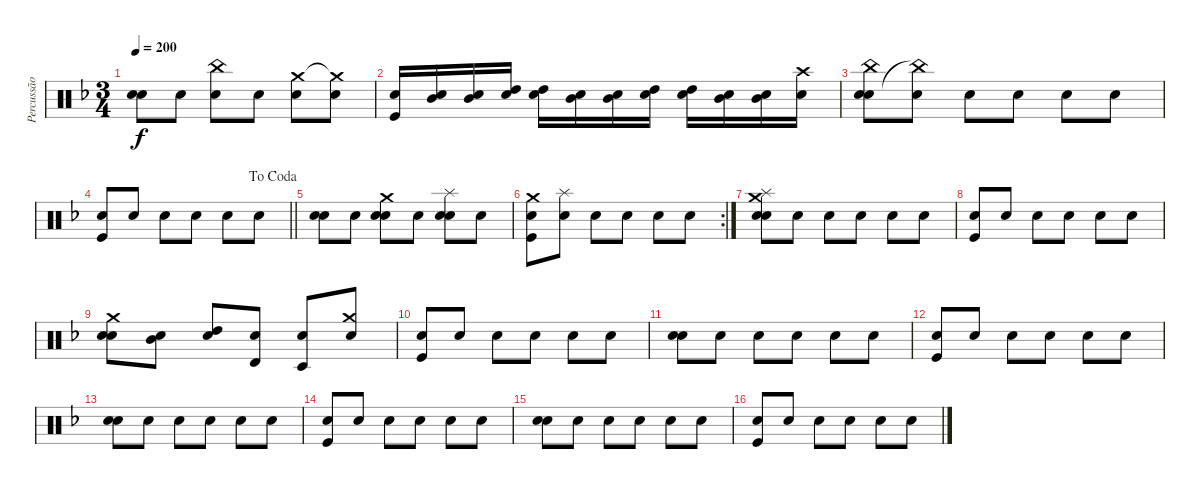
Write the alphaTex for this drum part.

\track ("Percussão" "Percussão") {instrument percussion}
\staff {score}
\articulation defaults
\ts (3 4)
\tempo 200
\clef neutral
\ks dminor
("Hand Clap (hit)" "Snare (hit) 2").8{dy f} "Hand Clap (hit)".8 ("Hand Clap (hit)" "China (hit)").8 "Hand Clap (hit)".8 ("Hand Clap (hit)" "Crash medium (hit)").8 ("Hand Clap (hit)" "Crash medium (hit)"{t}).8 |
("Hand Clap (hit)" "Kick (hit)").16 ("Hand Clap (hit)" "Mid Tom (hit)").16 ("Hand Clap (hit)" "Mid Tom (hit)").16 ("Hand Clap (hit)" "High Tom (hit)").16 ("Hand Clap (hit)" "High Tom (hit)").16 ("Hand Clap (hit)" "Mid Tom (hit)").16 ("Hand Clap (hit)" "Mid Tom (hit)").16 ("Hand Clap (hit)" "High Tom (hit)").16 ("Hand Clap (hit)" "High Tom (hit)").16 ("Hand Clap (hit)" "Mid Tom (hit)").16 ("Hand Clap (hit)" "Mid Tom (hit)").16 ("Hand Clap (hit)" "Crash high (hit)").16 |
("Hand Clap (hit)" "Snare (hit) 2" "China (hit)").8 ("Hand Clap (hit)" "China (hit)"{t}).8 "Hand Clap (hit)".8 "Hand Clap (hit)".8 "Hand Clap (hit)".8 "Hand Clap (hit)".8 |
\jump dacoda
\barLineRight lightlight
("Hand Clap (hit)" "Kick (hit)").8 "Hand Clap (hit)".8 "Hand Clap (hit)".8 "Hand Clap (hit)".8 "Hand Clap (hit)".8 "Hand Clap (hit)".8 |
("Hand Clap (hit)" "Snare (hit) 2").8 "Hand Clap (hit)".8 ("Hand Clap (hit)" "Crash medium (hit)" "Snare (hit) 2").8 "Hand Clap (hit)".8 ("Hand Clap (hit)" "Splash (hit)" "Snare (hit) 2").8 "Hand Clap (hit)".8 |
\rc 2
("Hand Clap (hit)" "Kick (hit)" "Crash medium (hit)").8 ("Hand Clap (hit)" "Splash (hit)").8 "Hand Clap (hit)".8 "Hand Clap (hit)".8 "Hand Clap (hit)".8 "Hand Clap (hit)".8 |
("Hand Clap (hit)" "Snare (hit) 2" "Splash (hit)" "Crash medium (hit)").8 "Hand Clap (hit)".8 "Hand Clap (hit)".8 "Hand Clap (hit)".8 "Hand Clap (hit)".8 "Hand Clap (hit)".8 |
("Hand Clap (hit)" "Kick (hit)").8 "Hand Clap (hit)".8 "Hand Clap (hit)".8 "Hand Clap (hit)".8 "Hand Clap (hit)".8 "Hand Clap (hit)".8 |
("Hand Clap (hit)" "Snare (hit) 2" "Crash medium (hit)").8 ("Hand Clap (hit)" "Mid Tom (hit)").8 ("Hand Clap (hit)" "High Tom (hit)").8 ("Hand Clap (hit)" "Timbale high (hit)").8 ("Hand Clap (hit)" "Timbale low (hit)").8 ("Hand Clap (hit)" "Crash medium (hit)").8 |
("Hand Clap (hit)" "Kick (hit)").8 "Hand Clap (hit)".8 "Hand Clap (hit)".8 "Hand Clap (hit)".8 "Hand Clap (hit)".8 "Hand Clap (hit)".8 |
("Hand Clap (hit)" "Snare (hit) 2").8 "Hand Clap (hit)".8 "Hand Clap (hit)".8 "Hand Clap (hit)".8 "Hand Clap (hit)".8 "Hand Clap (hit)".8 |
("Hand Clap (hit)" "Kick (hit)").8 "Hand Clap (hit)".8 "Hand Clap (hit)".8 "Hand Clap (hit)".8 "Hand Clap (hit)".8 "Hand Clap (hit)".8 |
("Hand Clap (hit)" "Snare (hit) 2").8 "Hand Clap (hit)".8 "Hand Clap (hit)".8 "Hand Clap (hit)".8 "Hand Clap (hit)".8 "Hand Clap (hit)".8 |
("Hand Clap (hit)" "Kick (hit)").8 "Hand Clap (hit)".8 "Hand Clap (hit)".8 "Hand Clap (hit)".8 "Hand Clap (hit)".8 "Hand Clap (hit)".8 |
("Hand Clap (hit)" "Snare (hit) 2").8 "Hand Clap (hit)".8 "Hand Clap (hit)".8 "Hand Clap (hit)".8 "Hand Clap (hit)".8 "Hand Clap (hit)".8 |
("Hand Clap (hit)" "Kick (hit)").8 "Hand Clap (hit)".8 "Hand Clap (hit)".8 "Hand Clap (hit)".8 "Hand Clap (hit)".8 "Hand Clap (hit)".8
